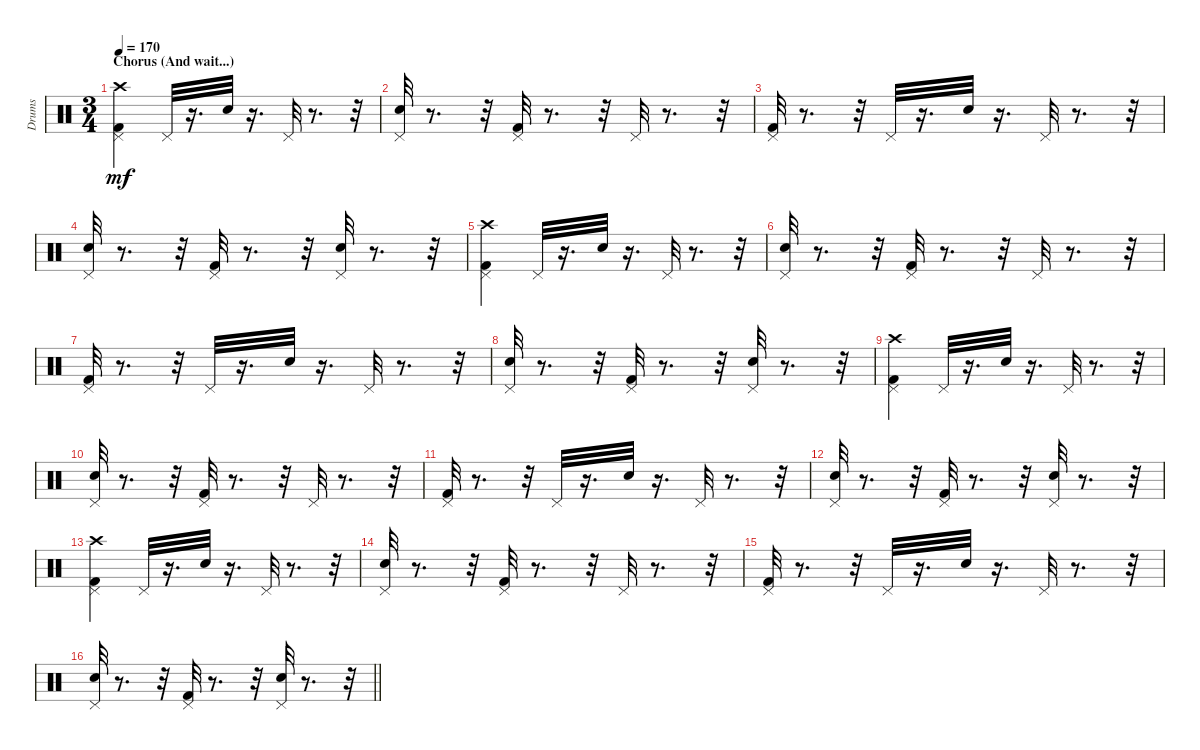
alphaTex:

\track ("Drums" "Drums") {instrument percussion}
\staff {score}
\articulation defaults
\ts (3 4)
\section ("" "Chorus (And wait...)")
\tempo 170
\clef neutral
\ks c
("Kick (hit) 2" "Pedal Hi-Hat (hit)" "Crash high (hit)").4{dy mf} "Pedal Hi-Hat (hit)".32 r.16{d} "Snare (hit) 2".32 r.16{d} "Pedal Hi-Hat (hit)".32 r.8{d} r.32 |
("Snare (hit) 2" "Pedal Hi-Hat (hit)").32 r.8{d} r.32 ("Kick (hit) 2" "Pedal Hi-Hat (hit)").32 r.8{d} r.32 "Pedal Hi-Hat (hit)".32 r.8{d} r.32 |
("Kick (hit) 2" "Pedal Hi-Hat (hit)").32 r.8{d} r.32 "Pedal Hi-Hat (hit)".32 r.16{d} "Snare (hit) 2".32 r.16{d} "Pedal Hi-Hat (hit)".32 r.8{d} r.32 |
("Snare (hit) 2" "Pedal Hi-Hat (hit)").32 r.8{d} r.32 ("Kick (hit) 2" "Pedal Hi-Hat (hit)").32 r.8{d} r.32 ("Snare (hit) 2" "Pedal Hi-Hat (hit)").32 r.8{d} r.32 |
("Kick (hit) 2" "Pedal Hi-Hat (hit)" "Crash high (hit)").4 "Pedal Hi-Hat (hit)".32 r.16{d} "Snare (hit) 2".32 r.16{d} "Pedal Hi-Hat (hit)".32 r.8{d} r.32 |
("Snare (hit) 2" "Pedal Hi-Hat (hit)").32 r.8{d} r.32 ("Kick (hit) 2" "Pedal Hi-Hat (hit)").32 r.8{d} r.32 "Pedal Hi-Hat (hit)".32 r.8{d} r.32 |
("Kick (hit) 2" "Pedal Hi-Hat (hit)").32 r.8{d} r.32 "Pedal Hi-Hat (hit)".32 r.16{d} "Snare (hit) 2".32 r.16{d} "Pedal Hi-Hat (hit)".32 r.8{d} r.32 |
("Snare (hit) 2" "Pedal Hi-Hat (hit)").32 r.8{d} r.32 ("Kick (hit) 2" "Pedal Hi-Hat (hit)").32 r.8{d} r.32 ("Snare (hit) 2" "Pedal Hi-Hat (hit)").32 r.8{d} r.32 |
("Kick (hit) 2" "Pedal Hi-Hat (hit)" "Crash high (hit)").4 "Pedal Hi-Hat (hit)".32 r.16{d} "Snare (hit) 2".32 r.16{d} "Pedal Hi-Hat (hit)".32 r.8{d} r.32 |
("Snare (hit) 2" "Pedal Hi-Hat (hit)").32 r.8{d} r.32 ("Kick (hit) 2" "Pedal Hi-Hat (hit)").32 r.8{d} r.32 "Pedal Hi-Hat (hit)".32 r.8{d} r.32 |
("Kick (hit) 2" "Pedal Hi-Hat (hit)").32 r.8{d} r.32 "Pedal Hi-Hat (hit)".32 r.16{d} "Snare (hit) 2".32 r.16{d} "Pedal Hi-Hat (hit)".32 r.8{d} r.32 |
("Snare (hit) 2" "Pedal Hi-Hat (hit)").32 r.8{d} r.32 ("Kick (hit) 2" "Pedal Hi-Hat (hit)").32 r.8{d} r.32 ("Snare (hit) 2" "Pedal Hi-Hat (hit)").32 r.8{d} r.32 |
("Kick (hit) 2" "Pedal Hi-Hat (hit)" "Crash high (hit)").4 "Pedal Hi-Hat (hit)".32 r.16{d} "Snare (hit) 2".32 r.16{d} "Pedal Hi-Hat (hit)".32 r.8{d} r.32 |
("Snare (hit) 2" "Pedal Hi-Hat (hit)").32 r.8{d} r.32 ("Kick (hit) 2" "Pedal Hi-Hat (hit)").32 r.8{d} r.32 "Pedal Hi-Hat (hit)".32 r.8{d} r.32 |
("Kick (hit) 2" "Pedal Hi-Hat (hit)").32 r.8{d} r.32 "Pedal Hi-Hat (hit)".32 r.16{d} "Snare (hit) 2".32 r.16{d} "Pedal Hi-Hat (hit)".32 r.8{d} r.32 |
\barLineRight lightlight
("Snare (hit) 2" "Pedal Hi-Hat (hit)").32 r.8{d} r.32 ("Kick (hit) 2" "Pedal Hi-Hat (hit)").32 r.8{d} r.32 ("Snare (hit) 2" "Pedal Hi-Hat (hit)").32 r.8{d} r.32
